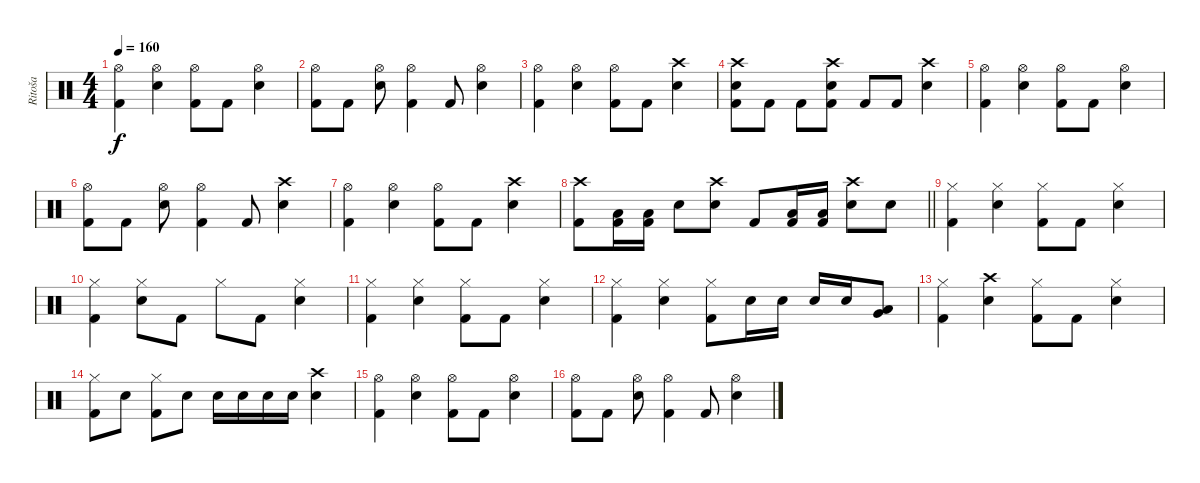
\track ("Ritoša" "Ritoša") {instrument percussion}
\staff {score}
\articulation defaults
\ts (4 4)
\tempo 160
\clef neutral
\ks c
("Hi-Hat (open)" "Kick (hit) 2").4{dy f} ("Hi-Hat (open)" "Electric Snare (hit)").4 ("Hi-Hat (open)" "Kick (hit) 2").8 "Kick (hit) 2".8 ("Hi-Hat (open)" "Electric Snare (hit)").4 |
("Hi-Hat (open)" "Kick (hit) 2").8 "Kick (hit) 2".8 ("Hi-Hat (open)" "Electric Snare (hit)").8 ("Hi-Hat (open)" "Kick (hit) 2").4 "Kick (hit) 2".8 ("Hi-Hat (open)" "Electric Snare (hit)").4 |
("Hi-Hat (open)" "Kick (hit) 2").4 ("Hi-Hat (open)" "Electric Snare (hit)").4 ("Hi-Hat (open)" "Kick (hit) 2").8 "Kick (hit) 2".8 ("Crash high (hit)" "Electric Snare (hit)").4 |
("Crash high (hit)" "Electric Snare (hit)" "Kick (hit) 2").8 "Kick (hit) 2".8 "Kick (hit) 2".8 ("Crash high (hit)" "Electric Snare (hit)" "Kick (hit) 2").8 "Kick (hit) 2".8 "Kick (hit) 2".8 ("Crash high (hit)" "Electric Snare (hit)").4 |
("Hi-Hat (open)" "Kick (hit) 2").4 ("Hi-Hat (open)" "Electric Snare (hit)").4 ("Hi-Hat (open)" "Kick (hit) 2").8 "Kick (hit) 2".8 ("Hi-Hat (open)" "Electric Snare (hit)").4 |
("Hi-Hat (open)" "Kick (hit) 2").8 "Kick (hit) 2".8 ("Hi-Hat (open)" "Electric Snare (hit)").8 ("Hi-Hat (open)" "Kick (hit) 2").4 "Kick (hit) 2".8 ("Crash high (hit)" "Electric Snare (hit)").4 |
("Hi-Hat (open)" "Kick (hit) 2").4 ("Hi-Hat (open)" "Electric Snare (hit)").4 ("Hi-Hat (open)" "Kick (hit) 2").8 "Kick (hit) 2".8 ("Crash high (hit)" "Electric Snare (hit)").4 |
\barLineRight lightlight
("Crash high (hit)" "Kick (hit) 2").8 ("Low Floor Tom (hit)" "Kick (hit) 2").16 ("Low Floor Tom (hit)" "Kick (hit) 2").16 "Electric Snare (hit)".8 ("Crash high (hit)" "Electric Snare (hit)").8 "Kick (hit) 2".8 ("Low Floor Tom (hit)" "Kick (hit) 2").16 ("Low Floor Tom (hit)" "Kick (hit) 2").16 ("Crash high (hit)" "Electric Snare (hit)").8 "Electric Snare (hit)".8 |
("Hi-Hat (closed)" "Kick (hit) 2").4 ("Hi-Hat (closed)" "Electric Snare (hit)").4 ("Hi-Hat (closed)" "Kick (hit) 2").8 "Kick (hit) 2".8 ("Hi-Hat (closed)" "Electric Snare (hit)").4 |
("Hi-Hat (closed)" "Kick (hit) 2").4 ("Hi-Hat (closed)" "Electric Snare (hit)").8 "Kick (hit) 2".8 "Hi-Hat (closed)".8 "Kick (hit) 2".8 ("Hi-Hat (closed)" "Electric Snare (hit)").4 |
("Hi-Hat (closed)" "Kick (hit) 2").4 ("Hi-Hat (closed)" "Electric Snare (hit)").4 ("Hi-Hat (closed)" "Kick (hit) 2").8 "Kick (hit) 2".8 ("Hi-Hat (closed)" "Electric Snare (hit)").4 |
("Hi-Hat (closed)" "Kick (hit) 2").4 ("Hi-Hat (closed)" "Electric Snare (hit)").4 ("Hi-Hat (closed)" "Kick (hit) 2").8 "Electric Snare (hit)".16 "Electric Snare (hit)".16 "Electric Snare (hit)".16 "Electric Snare (hit)".16 ("Very Low Tom (hit)" "Low Tom (hit)").8 |
("Hi-Hat (closed)" "Kick (hit) 2").4 ("Crash high (hit)" "Electric Snare (hit)").4 ("Hi-Hat (closed)" "Kick (hit) 2").8 "Kick (hit) 2".8 ("Hi-Hat (closed)" "Electric Snare (hit)").4 |
("Hi-Hat (closed)" "Kick (hit) 2").8 "Electric Snare (hit)".8 ("Hi-Hat (closed)" "Kick (hit) 2").8 "Electric Snare (hit)".8 "Electric Snare (hit)".16 "Electric Snare (hit)".16 "Electric Snare (hit)".16 "Electric Snare (hit)".16 ("Crash high (hit)" "Electric Snare (hit)").4 |
("Hi-Hat (open)" "Kick (hit) 2").4 ("Hi-Hat (open)" "Electric Snare (hit)").4 ("Hi-Hat (open)" "Kick (hit) 2").8 "Kick (hit) 2".8 ("Hi-Hat (open)" "Electric Snare (hit)").4 |
("Hi-Hat (open)" "Kick (hit) 2").8 "Kick (hit) 2".8 ("Hi-Hat (open)" "Electric Snare (hit)").8 ("Hi-Hat (open)" "Kick (hit) 2").4 "Kick (hit) 2".8 ("Hi-Hat (open)" "Electric Snare (hit)").4
